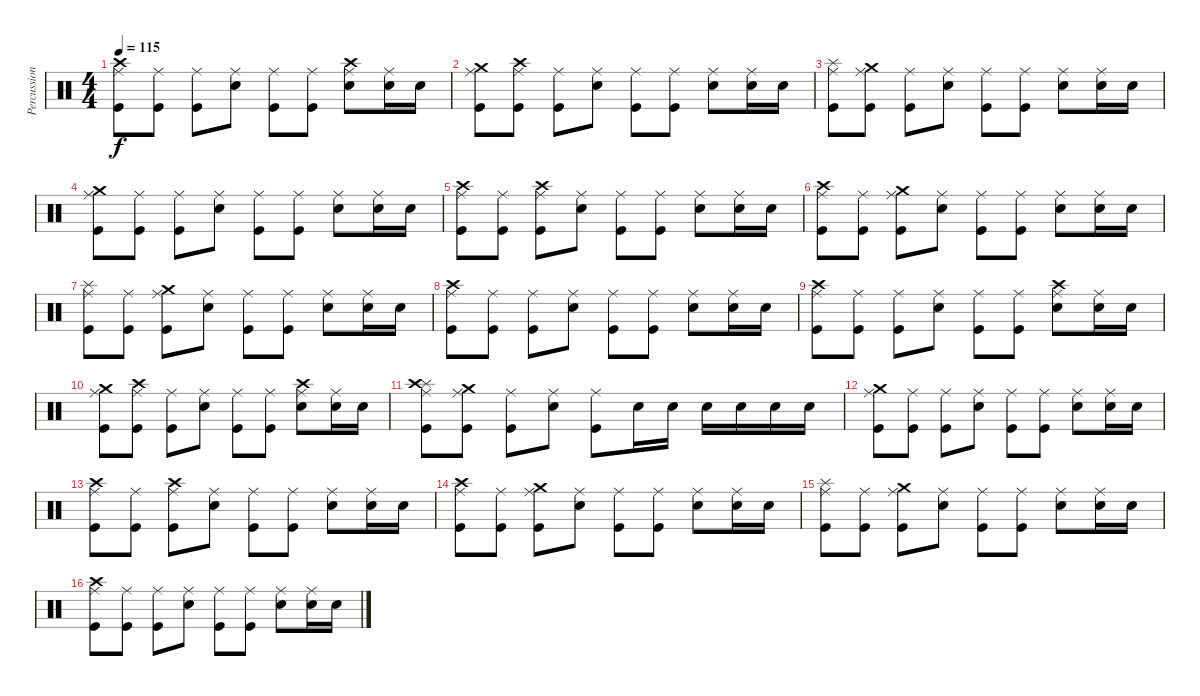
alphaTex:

\track ("Percussions" "Percussion") {instrument percussion}
\staff {score}
\articulation defaults
\ts (4 4)
\tempo 115
\clef neutral
\ks c
("Ride (middle)" "Crash high (hit)" "Kick (hit)").8{dy f} ("Ride (middle)" "Kick (hit)").8 ("Ride (middle)" "Kick (hit)").8 ("Ride (middle)" "Electric Snare (hit)").8 ("Ride (middle)" "Kick (hit)").8 ("Ride (middle)" "Kick (hit)").8 ("Ride (middle)" "Crash high (hit)" "Electric Snare (hit)").8 ("Ride (middle)" "Electric Snare (hit)").16 "Electric Snare (hit)".16 |
("Ride (middle)" "Crash medium (hit)" "Kick (hit)").8 ("Ride (middle)" "Crash high (hit)" "Kick (hit)").8 ("Ride (middle)" "Kick (hit)").8 ("Ride (middle)" "Electric Snare (hit)").8 ("Ride (middle)" "Kick (hit)").8 ("Ride (middle)" "Kick (hit)").8 ("Ride (middle)" "Electric Snare (hit)").8 ("Ride (middle)" "Electric Snare (hit)").16 "Electric Snare (hit)".16 |
("Ride (middle)" "Splash (hit)" "Kick (hit)").8 ("Ride (middle)" "Crash medium (hit)" "Kick (hit)").8 ("Ride (middle)" "Kick (hit)").8 ("Ride (middle)" "Electric Snare (hit)").8 ("Ride (middle)" "Kick (hit)").8 ("Ride (middle)" "Kick (hit)").8 ("Ride (middle)" "Electric Snare (hit)").8 ("Ride (middle)" "Electric Snare (hit)").16 "Electric Snare (hit)".16 |
("Ride (middle)" "Crash medium (hit)" "Kick (hit)").8 ("Ride (middle)" "Kick (hit)").8 ("Ride (middle)" "Kick (hit)").8 ("Ride (middle)" "Electric Snare (hit)").8 ("Ride (middle)" "Kick (hit)").8 ("Ride (middle)" "Kick (hit)").8 ("Ride (middle)" "Electric Snare (hit)").8 ("Ride (middle)" "Electric Snare (hit)").16 "Electric Snare (hit)".16 |
("Ride (middle)" "Crash high (hit)" "Kick (hit)").8 ("Ride (middle)" "Kick (hit)").8 ("Ride (middle)" "Crash high (hit)" "Kick (hit)").8 ("Ride (middle)" "Electric Snare (hit)").8 ("Ride (middle)" "Kick (hit)").8 ("Ride (middle)" "Kick (hit)").8 ("Ride (middle)" "Electric Snare (hit)").8 ("Ride (middle)" "Electric Snare (hit)").16 "Electric Snare (hit)".16 |
("Ride (middle)" "Crash high (hit)" "Kick (hit)").8 ("Ride (middle)" "Kick (hit)").8 ("Ride (middle)" "Crash medium (hit)" "Kick (hit)").8 ("Ride (middle)" "Electric Snare (hit)").8 ("Ride (middle)" "Kick (hit)").8 ("Ride (middle)" "Kick (hit)").8 ("Ride (middle)" "Electric Snare (hit)").8 ("Ride (middle)" "Electric Snare (hit)").16 "Electric Snare (hit)".16 |
("Ride (middle)" "Splash (hit)" "Kick (hit)").8 ("Ride (middle)" "Kick (hit)").8 ("Ride (middle)" "Crash medium (hit)" "Kick (hit)").8 ("Ride (middle)" "Electric Snare (hit)").8 ("Ride (middle)" "Kick (hit)").8 ("Ride (middle)" "Kick (hit)").8 ("Ride (middle)" "Electric Snare (hit)").8 ("Ride (middle)" "Electric Snare (hit)").16 "Electric Snare (hit)".16 |
("Ride (middle)" "Crash high (hit)" "Kick (hit)").8 ("Ride (middle)" "Kick (hit)").8 ("Ride (middle)" "Kick (hit)").8 ("Ride (middle)" "Electric Snare (hit)").8 ("Ride (middle)" "Kick (hit)").8 ("Ride (middle)" "Kick (hit)").8 ("Ride (middle)" "Electric Snare (hit)").8 ("Ride (middle)" "Electric Snare (hit)").16 "Electric Snare (hit)".16 |
("Ride (middle)" "Crash high (hit)" "Kick (hit)").8 ("Ride (middle)" "Kick (hit)").8 ("Ride (middle)" "Kick (hit)").8 ("Ride (middle)" "Electric Snare (hit)").8 ("Ride (middle)" "Kick (hit)").8 ("Ride (middle)" "Kick (hit)").8 ("Ride (middle)" "Crash high (hit)" "Electric Snare (hit)").8 ("Ride (middle)" "Electric Snare (hit)").16 "Electric Snare (hit)".16 |
("Ride (middle)" "Crash medium (hit)" "Kick (hit)").8 ("Ride (middle)" "Crash high (hit)" "Kick (hit)").8 ("Ride (middle)" "Kick (hit)").8 ("Ride (middle)" "Electric Snare (hit)").8 ("Ride (middle)" "Kick (hit)").8 ("Ride (middle)" "Kick (hit)").8 ("Ride (middle)" "Crash high (hit)" "Electric Snare (hit)").8 ("Ride (middle)" "Electric Snare (hit)").16 "Electric Snare (hit)".16 |
("Ride (middle)" "Splash (hit)" "Crash high (hit)" "Kick (hit)").8 ("Ride (middle)" "Crash medium (hit)" "Kick (hit)").8 ("Ride (middle)" "Kick (hit)").8 ("Ride (middle)" "Electric Snare (hit)").8 ("Ride (middle)" "Kick (hit)").8 "Electric Snare (hit)".16 "Electric Snare (hit)".16 "Electric Snare (hit)".16 "Electric Snare (hit)".16 "Electric Snare (hit)".16 "Electric Snare (hit)".16 |
("Ride (middle)" "Crash medium (hit)" "Kick (hit)").8 ("Ride (middle)" "Kick (hit)").8 ("Ride (middle)" "Kick (hit)").8 ("Ride (middle)" "Electric Snare (hit)").8 ("Ride (middle)" "Kick (hit)").8 ("Ride (middle)" "Kick (hit)").8 ("Ride (middle)" "Electric Snare (hit)").8 ("Ride (middle)" "Electric Snare (hit)").16 "Electric Snare (hit)".16 |
("Ride (middle)" "Crash high (hit)" "Kick (hit)").8 ("Ride (middle)" "Kick (hit)").8 ("Ride (middle)" "Crash high (hit)" "Kick (hit)").8 ("Ride (middle)" "Electric Snare (hit)").8 ("Ride (middle)" "Kick (hit)").8 ("Ride (middle)" "Kick (hit)").8 ("Ride (middle)" "Electric Snare (hit)").8 ("Ride (middle)" "Electric Snare (hit)").16 "Electric Snare (hit)".16 |
("Ride (middle)" "Crash high (hit)" "Kick (hit)").8 ("Ride (middle)" "Kick (hit)").8 ("Ride (middle)" "Crash medium (hit)" "Kick (hit)").8 ("Ride (middle)" "Electric Snare (hit)").8 ("Ride (middle)" "Kick (hit)").8 ("Ride (middle)" "Kick (hit)").8 ("Ride (middle)" "Electric Snare (hit)").8 ("Ride (middle)" "Electric Snare (hit)").16 "Electric Snare (hit)".16 |
("Ride (middle)" "Splash (hit)" "Kick (hit)").8 ("Ride (middle)" "Kick (hit)").8 ("Ride (middle)" "Crash medium (hit)" "Kick (hit)").8 ("Ride (middle)" "Electric Snare (hit)").8 ("Ride (middle)" "Kick (hit)").8 ("Ride (middle)" "Kick (hit)").8 ("Ride (middle)" "Electric Snare (hit)").8 ("Ride (middle)" "Electric Snare (hit)").16 "Electric Snare (hit)".16 |
("Ride (middle)" "Crash high (hit)" "Kick (hit)").8 ("Ride (middle)" "Kick (hit)").8 ("Ride (middle)" "Kick (hit)").8 ("Ride (middle)" "Electric Snare (hit)").8 ("Ride (middle)" "Kick (hit)").8 ("Ride (middle)" "Kick (hit)").8 ("Ride (middle)" "Electric Snare (hit)").8 ("Ride (middle)" "Electric Snare (hit)").16 "Electric Snare (hit)".16
